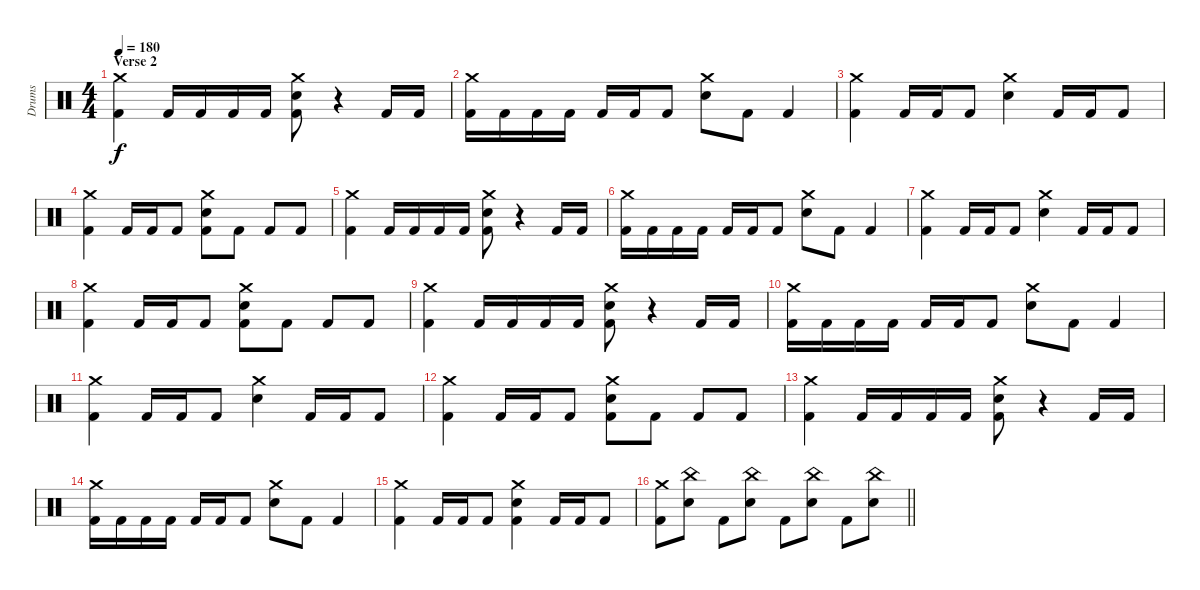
\track ("Drums" "Drums") {instrument percussion}
\staff {score}
\articulation defaults
\ts (4 4)
\section ("" "Verse 2")
\tempo 180
\clef neutral
\ks c
("Crash medium (hit)" "Kick (hit) 2").4{dy f} "Kick (hit) 2".16 "Kick (hit) 2".16 "Kick (hit) 2".16 "Kick (hit) 2".16 ("Crash medium (hit)" "Electric Snare (hit)" "Kick (hit) 2").8 r.4 "Kick (hit) 2".16 "Kick (hit) 2".16 |
("Crash medium (hit)" "Kick (hit) 2").16 "Kick (hit) 2".16 "Kick (hit) 2".16 "Kick (hit) 2".16 "Kick (hit) 2".16 "Kick (hit) 2".16 "Kick (hit) 2".8 ("Crash medium (hit)" "Electric Snare (hit)").8 "Kick (hit) 2".8 "Kick (hit) 2".4 |
("Crash medium (hit)" "Kick (hit) 2").4 "Kick (hit) 2".16 "Kick (hit) 2".16 "Kick (hit) 2".8 ("Crash medium (hit)" "Electric Snare (hit)").4 "Kick (hit) 2".16 "Kick (hit) 2".16 "Kick (hit) 2".8 |
("Crash medium (hit)" "Kick (hit) 2").4 "Kick (hit) 2".16 "Kick (hit) 2".16 "Kick (hit) 2".8 ("Crash medium (hit)" "Electric Snare (hit)" "Kick (hit) 2").8 "Kick (hit) 2".8 "Kick (hit) 2".8 "Kick (hit) 2".8 |
("Crash medium (hit)" "Kick (hit) 2").4 "Kick (hit) 2".16 "Kick (hit) 2".16 "Kick (hit) 2".16 "Kick (hit) 2".16 ("Crash medium (hit)" "Electric Snare (hit)" "Kick (hit) 2").8 r.4 "Kick (hit) 2".16 "Kick (hit) 2".16 |
("Crash medium (hit)" "Kick (hit) 2").16 "Kick (hit) 2".16 "Kick (hit) 2".16 "Kick (hit) 2".16 "Kick (hit) 2".16 "Kick (hit) 2".16 "Kick (hit) 2".8 ("Crash medium (hit)" "Electric Snare (hit)").8 "Kick (hit) 2".8 "Kick (hit) 2".4 |
("Crash medium (hit)" "Kick (hit) 2").4 "Kick (hit) 2".16 "Kick (hit) 2".16 "Kick (hit) 2".8 ("Crash medium (hit)" "Electric Snare (hit)").4 "Kick (hit) 2".16 "Kick (hit) 2".16 "Kick (hit) 2".8 |
("Crash medium (hit)" "Kick (hit) 2").4 "Kick (hit) 2".16 "Kick (hit) 2".16 "Kick (hit) 2".8 ("Crash medium (hit)" "Electric Snare (hit)" "Kick (hit) 2").8 "Kick (hit) 2".8 "Kick (hit) 2".8 "Kick (hit) 2".8 |
("Crash medium (hit)" "Kick (hit) 2").4 "Kick (hit) 2".16 "Kick (hit) 2".16 "Kick (hit) 2".16 "Kick (hit) 2".16 ("Crash medium (hit)" "Electric Snare (hit)" "Kick (hit) 2").8 r.4 "Kick (hit) 2".16 "Kick (hit) 2".16 |
("Crash medium (hit)" "Kick (hit) 2").16 "Kick (hit) 2".16 "Kick (hit) 2".16 "Kick (hit) 2".16 "Kick (hit) 2".16 "Kick (hit) 2".16 "Kick (hit) 2".8 ("Crash medium (hit)" "Electric Snare (hit)").8 "Kick (hit) 2".8 "Kick (hit) 2".4 |
("Crash medium (hit)" "Kick (hit) 2").4 "Kick (hit) 2".16 "Kick (hit) 2".16 "Kick (hit) 2".8 ("Crash medium (hit)" "Electric Snare (hit)").4 "Kick (hit) 2".16 "Kick (hit) 2".16 "Kick (hit) 2".8 |
("Crash medium (hit)" "Kick (hit) 2").4 "Kick (hit) 2".16 "Kick (hit) 2".16 "Kick (hit) 2".8 ("Crash medium (hit)" "Electric Snare (hit)" "Kick (hit) 2").8 "Kick (hit) 2".8 "Kick (hit) 2".8 "Kick (hit) 2".8 |
("Crash medium (hit)" "Kick (hit) 2").4 "Kick (hit) 2".16 "Kick (hit) 2".16 "Kick (hit) 2".16 "Kick (hit) 2".16 ("Crash medium (hit)" "Electric Snare (hit)" "Kick (hit) 2").8 r.4 "Kick (hit) 2".16 "Kick (hit) 2".16 |
("Crash medium (hit)" "Kick (hit) 2").16 "Kick (hit) 2".16 "Kick (hit) 2".16 "Kick (hit) 2".16 "Kick (hit) 2".16 "Kick (hit) 2".16 "Kick (hit) 2".8 ("Crash medium (hit)" "Electric Snare (hit)").8 "Kick (hit) 2".8 "Kick (hit) 2".4 |
("Crash medium (hit)" "Kick (hit) 2").4 "Kick (hit) 2".16 "Kick (hit) 2".16 "Kick (hit) 2".8 ("Crash medium (hit)" "Electric Snare (hit)" "Kick (hit) 2").4 "Kick (hit) 2".16 "Kick (hit) 2".16 "Kick (hit) 2".8 |
\barLineRight lightlight
("Crash medium (hit)" "Kick (hit) 2").8 ("China (hit)" "Electric Snare (hit)").8 "Kick (hit) 2".8 ("China (hit)" "Electric Snare (hit)").8 "Kick (hit) 2".8 ("China (hit)" "Electric Snare (hit)").8 "Kick (hit) 2".8 ("China (hit)" "Electric Snare (hit)").8
